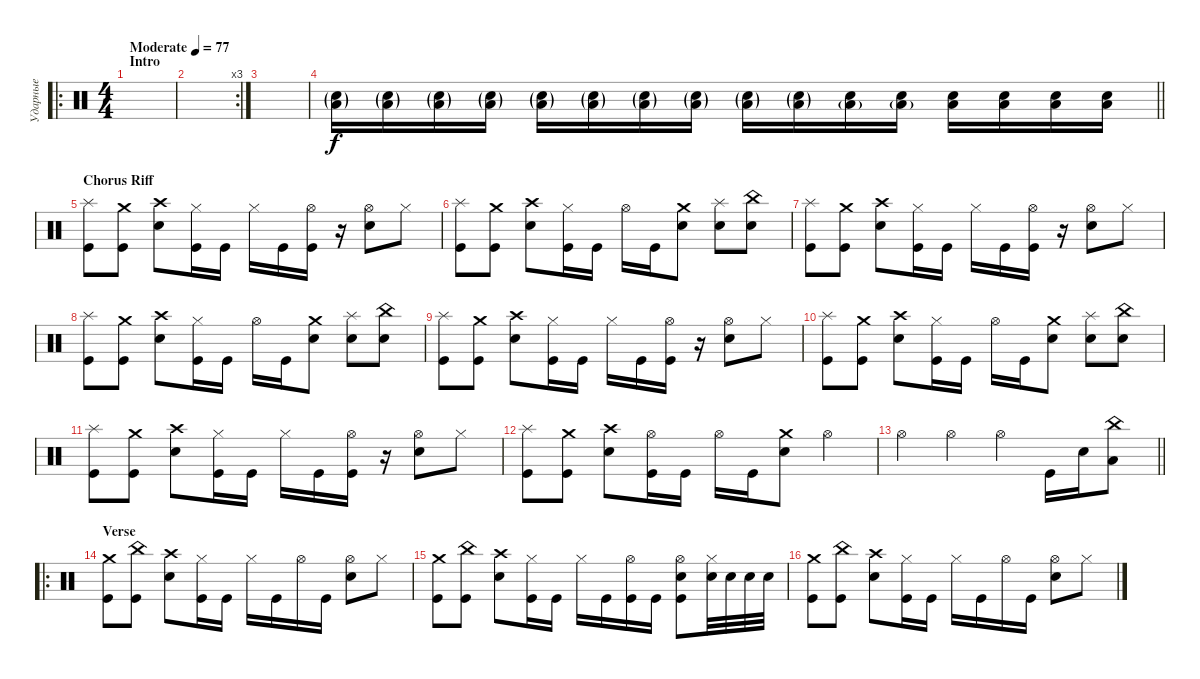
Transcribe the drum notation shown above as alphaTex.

\track ("Ударные" "Ударные") {instrument percussion}
\staff {score}
\articulation defaults
\ro
\ts (4 4)
\section ("" "Intro")
\tempo (77 "Moderate")
\clef neutral
\ks c
|
\rc 3
|
|
\barLineRight lightlight
("Snare (hit) 2"{g} "Low Floor Tom (hit)"{g}).16{volume 8} ("Snare (hit) 2"{g} "Low Floor Tom (hit)"{g}).16 ("Snare (hit) 2"{g} "Low Floor Tom (hit)"{g}).16 ("Snare (hit) 2"{g} "Low Floor Tom (hit)"{g}).16 ("Snare (hit) 2"{g} "Low Floor Tom (hit)"{g}).16{volume 10} ("Snare (hit) 2"{g} "Low Floor Tom (hit)"{g}).16 ("Snare (hit) 2"{g} "Low Floor Tom (hit)"{g}).16 ("Snare (hit) 2"{g} "Low Floor Tom (hit)"{g}).16 ("Snare (hit) 2"{g} "Low Floor Tom (hit)"{g}).16{volume 12} ("Snare (hit) 2"{g} "Low Floor Tom (hit)"{g}).16 ("Snare (hit) 2" "Low Floor Tom (hit)"{g}).16 ("Snare (hit) 2" "Low Floor Tom (hit)"{g}).16 ("Snare (hit) 2" "Low Floor Tom (hit)").16{dy f volume 15} ("Snare (hit) 2" "Low Floor Tom (hit)").16 ("Snare (hit) 2" "Low Floor Tom (hit)").16 ("Snare (hit) 2" "Low Floor Tom (hit)").16 |
\section ("" "Chorus Riff")
("Splash (hit)" "Kick (hit)").8 ("Crash medium (hit)" "Kick (hit)").8 ("Crash high (hit)" "Snare (hit) 2").8 ("Hi-Hat (closed)" "Kick (hit)").16 "Kick (hit)".16 "Hi-Hat (closed)".16 "Kick (hit)".16 ("Hi-Hat (open)" "Kick (hit)").16 r.16 ("Hi-Hat (open)" "Snare (hit) 2").8 "Hi-Hat (closed)".8 |
("Splash (hit)" "Kick (hit)").8 ("Crash medium (hit)" "Kick (hit)").8 ("Crash high (hit)" "Snare (hit) 2").8 ("Hi-Hat (closed)" "Kick (hit)").16 "Kick (hit)".16 "Hi-Hat (open)".16 "Kick (hit)".16 ("Crash medium (hit)" "Snare (hit) 2").8 ("Splash (hit)" "Snare (hit) 2").8 ("China (hit)" "Snare (hit) 2").8 |
("Splash (hit)" "Kick (hit)").8 ("Crash medium (hit)" "Kick (hit)").8 ("Crash high (hit)" "Snare (hit) 2").8 ("Hi-Hat (closed)" "Kick (hit)").16 "Kick (hit)".16 "Hi-Hat (closed)".16 "Kick (hit)".16 ("Hi-Hat (open)" "Kick (hit)").16 r.16 ("Hi-Hat (open)" "Snare (hit) 2").8 "Hi-Hat (closed)".8 |
("Splash (hit)" "Kick (hit)").8 ("Crash medium (hit)" "Kick (hit)").8 ("Crash high (hit)" "Snare (hit) 2").8 ("Hi-Hat (closed)" "Kick (hit)").16 "Kick (hit)".16 "Hi-Hat (open)".16 "Kick (hit)".16 ("Crash medium (hit)" "Snare (hit) 2").8 ("Splash (hit)" "Snare (hit) 2").8 ("China (hit)" "Snare (hit) 2").8 |
("Splash (hit)" "Kick (hit)").8 ("Crash medium (hit)" "Kick (hit)").8 ("Crash high (hit)" "Snare (hit) 2").8 ("Hi-Hat (closed)" "Kick (hit)").16 "Kick (hit)".16 "Hi-Hat (closed)".16 "Kick (hit)".16 ("Hi-Hat (open)" "Kick (hit)").16 r.16 ("Hi-Hat (open)" "Snare (hit) 2").8 "Hi-Hat (closed)".8 |
("Splash (hit)" "Kick (hit)").8 ("Crash medium (hit)" "Kick (hit)").8 ("Crash high (hit)" "Snare (hit) 2").8 ("Hi-Hat (closed)" "Kick (hit)").16 "Kick (hit)".16 "Hi-Hat (open)".16 "Kick (hit)".16 ("Crash medium (hit)" "Snare (hit) 2").8 ("Splash (hit)" "Snare (hit) 2").8 ("China (hit)" "Snare (hit) 2").8 |
("Splash (hit)" "Kick (hit)").8 ("Crash medium (hit)" "Kick (hit)").8 ("Crash high (hit)" "Snare (hit) 2").8 ("Hi-Hat (closed)" "Kick (hit)").16 "Kick (hit)".16 "Hi-Hat (closed)".16 "Kick (hit)".16 ("Hi-Hat (open)" "Kick (hit)").16 r.16 ("Hi-Hat (open)" "Snare (hit) 2").8 "Hi-Hat (closed)".8 |
("Splash (hit)" "Kick (hit)").8 ("Crash medium (hit)" "Kick (hit)").8 ("Crash high (hit)" "Snare (hit) 2").8 ("Hi-Hat (open)" "Kick (hit)").16 "Kick (hit)".16 "Hi-Hat (open)".16 "Kick (hit)".16 ("Crash medium (hit)" "Snare (hit) 2").8 "Hi-Hat (open)".4 |
\barLineRight lightlight "Hi-Hat (open)".4 "Hi-Hat (open)".4 "Hi-Hat (open)".4 "Kick (hit)".16 "Snare (hit) 2".16
("China (hit)" "Low Floor Tom (hit)").8 |
\ro
\section ("" "Verse")
("Crash medium (hit)" "Kick (hit)").8 ("China (hit)" "Kick (hit)").8 ("Crash high (hit)" "Snare (hit) 2").8 ("Hi-Hat (closed)" "Kick (hit)").16 "Kick (hit)".16 "Hi-Hat (closed)".16 "Kick (hit)".16 "Hi-Hat (open)".16 "Kick (hit)".16 ("Hi-Hat (open)" "Snare (hit) 2").8 "Hi-Hat (closed)".8 |
("Crash medium (hit)" "Kick (hit)").8 ("China (hit)" "Kick (hit)").8 ("Crash high (hit)" "Snare (hit) 2").8 ("Hi-Hat (closed)" "Kick (hit)").16 "Kick (hit)".16 "Hi-Hat (closed)".16 "Kick (hit)".16 ("Hi-Hat (open)" "Kick (hit)").16 "Kick (hit)".16 ("Hi-Hat (open)" "Snare (hit) 2" "Kick (hit)").8 ("Hi-Hat (closed)" "Snare (hit) 2").32 "Snare (hit) 2".32 "Snare (hit) 2".32 "Snare (hit) 2".32 |
("Crash medium (hit)" "Kick (hit)").8 ("China (hit)" "Kick (hit)").8 ("Crash high (hit)" "Snare (hit) 2").8 ("Hi-Hat (closed)" "Kick (hit)").16 "Kick (hit)".16 "Hi-Hat (closed)".16 "Kick (hit)".16 "Hi-Hat (open)".16 "Kick (hit)".16 ("Hi-Hat (open)" "Snare (hit) 2").8 "Hi-Hat (closed)".8
